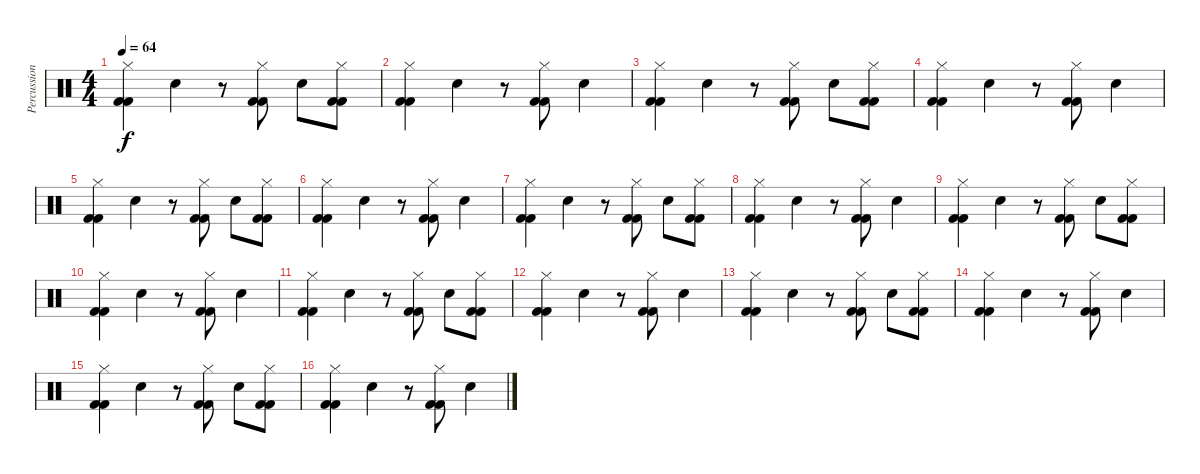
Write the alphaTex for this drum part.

\track ("Percussions" "Percussion") {instrument percussion}
\staff {score}
\articulation defaults
\ts (4 4)
\tempo 64
\clef neutral
\ks c
("Kick (hit) 2" "Hi-Hat (closed)" "Kick (hit) 2").4{dy f} "Hand Clap (hit)".4 r.8 ("Kick (hit) 2" "Hi-Hat (closed)" "Kick (hit) 2").8 "Hand Clap (hit)".8 ("Kick (hit) 2" "Hi-Hat (closed)" "Kick (hit) 2").8 |
("Kick (hit) 2" "Hi-Hat (closed)" "Kick (hit) 2").4 "Hand Clap (hit)".4 r.8 ("Kick (hit) 2" "Hi-Hat (closed)" "Kick (hit) 2").8 "Hand Clap (hit)".4 |
("Kick (hit) 2" "Hi-Hat (closed)" "Kick (hit) 2").4 "Hand Clap (hit)".4 r.8 ("Kick (hit) 2" "Hi-Hat (closed)" "Kick (hit) 2").8 "Hand Clap (hit)".8 ("Kick (hit) 2" "Hi-Hat (closed)" "Kick (hit) 2").8 |
("Kick (hit) 2" "Hi-Hat (closed)" "Kick (hit) 2").4 "Hand Clap (hit)".4 r.8 ("Kick (hit) 2" "Hi-Hat (closed)" "Kick (hit) 2").8 "Hand Clap (hit)".4 |
("Kick (hit) 2" "Hi-Hat (closed)" "Kick (hit) 2").4 "Hand Clap (hit)".4 r.8 ("Kick (hit) 2" "Hi-Hat (closed)" "Kick (hit) 2").8 "Hand Clap (hit)".8 ("Kick (hit) 2" "Hi-Hat (closed)" "Kick (hit) 2").8 |
("Kick (hit) 2" "Hi-Hat (closed)" "Kick (hit) 2").4 "Hand Clap (hit)".4 r.8 ("Kick (hit) 2" "Hi-Hat (closed)" "Kick (hit) 2").8 "Hand Clap (hit)".4 |
("Kick (hit) 2" "Hi-Hat (closed)" "Kick (hit) 2").4 "Hand Clap (hit)".4 r.8 ("Kick (hit) 2" "Hi-Hat (closed)" "Kick (hit) 2").8 "Hand Clap (hit)".8 ("Kick (hit) 2" "Hi-Hat (closed)" "Kick (hit) 2").8 |
("Kick (hit) 2" "Hi-Hat (closed)" "Kick (hit) 2").4 "Hand Clap (hit)".4 r.8 ("Kick (hit) 2" "Hi-Hat (closed)" "Kick (hit) 2").8 "Hand Clap (hit)".4 |
("Kick (hit) 2" "Hi-Hat (closed)" "Kick (hit) 2").4 "Hand Clap (hit)".4 r.8 ("Kick (hit) 2" "Hi-Hat (closed)" "Kick (hit) 2").8 "Hand Clap (hit)".8 ("Kick (hit) 2" "Hi-Hat (closed)" "Kick (hit) 2").8 |
("Kick (hit) 2" "Hi-Hat (closed)" "Kick (hit) 2").4 "Hand Clap (hit)".4 r.8 ("Kick (hit) 2" "Hi-Hat (closed)" "Kick (hit) 2").8 "Hand Clap (hit)".4 |
("Kick (hit) 2" "Hi-Hat (closed)" "Kick (hit) 2").4 "Hand Clap (hit)".4 r.8 ("Kick (hit) 2" "Hi-Hat (closed)" "Kick (hit) 2").8 "Hand Clap (hit)".8 ("Kick (hit) 2" "Hi-Hat (closed)" "Kick (hit) 2").8 |
("Kick (hit) 2" "Hi-Hat (closed)" "Kick (hit) 2").4 "Hand Clap (hit)".4 r.8 ("Kick (hit) 2" "Hi-Hat (closed)" "Kick (hit) 2").8 "Hand Clap (hit)".4 |
("Kick (hit) 2" "Hi-Hat (closed)" "Kick (hit) 2").4 "Hand Clap (hit)".4 r.8 ("Kick (hit) 2" "Hi-Hat (closed)" "Kick (hit) 2").8 "Hand Clap (hit)".8 ("Kick (hit) 2" "Hi-Hat (closed)" "Kick (hit) 2").8 |
("Kick (hit) 2" "Hi-Hat (closed)" "Kick (hit) 2").4 "Hand Clap (hit)".4 r.8 ("Kick (hit) 2" "Hi-Hat (closed)" "Kick (hit) 2").8 "Hand Clap (hit)".4 |
("Kick (hit) 2" "Hi-Hat (closed)" "Kick (hit) 2").4 "Hand Clap (hit)".4 r.8 ("Kick (hit) 2" "Hi-Hat (closed)" "Kick (hit) 2").8 "Hand Clap (hit)".8 ("Kick (hit) 2" "Hi-Hat (closed)" "Kick (hit) 2").8 |
("Kick (hit) 2" "Hi-Hat (closed)" "Kick (hit) 2").4 "Hand Clap (hit)".4 r.8 ("Kick (hit) 2" "Hi-Hat (closed)" "Kick (hit) 2").8 "Hand Clap (hit)".4
